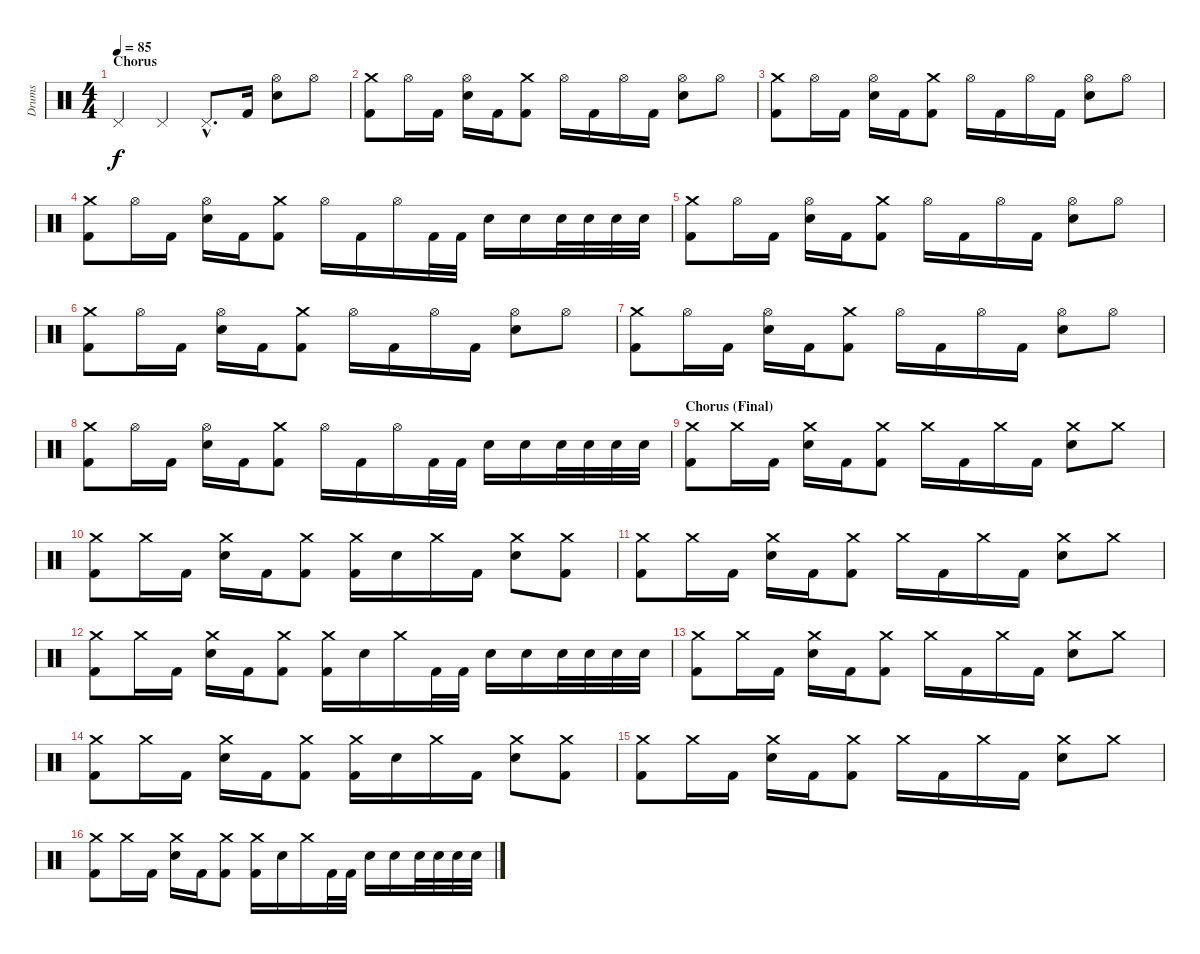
\track ("Drums" "Drums") {instrument percussion}
\staff {score}
\articulation defaults
\ts (4 4)
\section ("" "Chorus")
\tempo 85
\clef neutral
\ks c "Pedal Hi-Hat (hit)".4{dy f} "Pedal Hi-Hat (hit)".4 "Pedal Hi-Hat (hit)"{hac}.8{d} "Kick (hit) 2".16
("Hi-Hat (open)" "Electric Snare (hit)").8 "Hi-Hat (open)".8 |
("Crash medium (hit)" "Kick (hit) 2").8 "Hi-Hat (open)".16 "Kick (hit) 2".16 ("Hi-Hat (open)" "Electric Snare (hit)").16 "Kick (hit) 2".16 ("Crash medium (hit)" "Kick (hit) 2").8 "Hi-Hat (open)".16 "Kick (hit) 2".16 "Hi-Hat (open)".16 "Kick (hit) 2".16 ("Hi-Hat (open)" "Electric Snare (hit)").8 "Hi-Hat (open)".8 |
("Crash medium (hit)" "Kick (hit) 2").8 "Hi-Hat (open)".16 "Kick (hit) 2".16 ("Hi-Hat (open)" "Electric Snare (hit)").16 "Kick (hit) 2".16 ("Crash medium (hit)" "Kick (hit) 2").8 "Hi-Hat (open)".16 "Kick (hit) 2".16 "Hi-Hat (open)".16 "Kick (hit) 2".16 ("Hi-Hat (open)" "Electric Snare (hit)").8 "Hi-Hat (open)".8 |
("Crash medium (hit)" "Kick (hit) 2").8 "Hi-Hat (open)".16 "Kick (hit) 2".16 ("Hi-Hat (open)" "Electric Snare (hit)").16 "Kick (hit) 2".16 ("Crash medium (hit)" "Kick (hit) 2").8 "Hi-Hat (open)".16 "Kick (hit) 2".16 "Hi-Hat (open)".16 "Kick (hit) 2".32 "Kick (hit) 2".32 "Electric Snare (hit)".16 "Electric Snare (hit)".16 "Electric Snare (hit)".32 "Electric Snare (hit)".32 "Electric Snare (hit)".32 "Electric Snare (hit)".32 |
("Crash medium (hit)" "Kick (hit) 2").8 "Hi-Hat (open)".16 "Kick (hit) 2".16 ("Hi-Hat (open)" "Electric Snare (hit)").16 "Kick (hit) 2".16 ("Crash medium (hit)" "Kick (hit) 2").8 "Hi-Hat (open)".16 "Kick (hit) 2".16 "Hi-Hat (open)".16 "Kick (hit) 2".16 ("Hi-Hat (open)" "Electric Snare (hit)").8 "Hi-Hat (open)".8 |
("Crash medium (hit)" "Kick (hit) 2").8 "Hi-Hat (open)".16 "Kick (hit) 2".16 ("Hi-Hat (open)" "Electric Snare (hit)").16 "Kick (hit) 2".16 ("Crash medium (hit)" "Kick (hit) 2").8 "Hi-Hat (open)".16 "Kick (hit) 2".16 "Hi-Hat (open)".16 "Kick (hit) 2".16 ("Hi-Hat (open)" "Electric Snare (hit)").8 "Hi-Hat (open)".8 |
("Crash medium (hit)" "Kick (hit) 2").8 "Hi-Hat (open)".16 "Kick (hit) 2".16 ("Hi-Hat (open)" "Electric Snare (hit)").16 "Kick (hit) 2".16 ("Crash medium (hit)" "Kick (hit) 2").8 "Hi-Hat (open)".16 "Kick (hit) 2".16 "Hi-Hat (open)".16 "Kick (hit) 2".16 ("Hi-Hat (open)" "Electric Snare (hit)").8 "Hi-Hat (open)".8 |
("Crash medium (hit)" "Kick (hit) 2").8 "Hi-Hat (open)".16 "Kick (hit) 2".16 ("Hi-Hat (open)" "Electric Snare (hit)").16 "Kick (hit) 2".16 ("Crash medium (hit)" "Kick (hit) 2").8 "Hi-Hat (open)".16 "Kick (hit) 2".16 "Hi-Hat (open)".16 "Kick (hit) 2".32 "Kick (hit) 2".32 "Electric Snare (hit)".16 "Electric Snare (hit)".16 "Electric Snare (hit)".32 "Electric Snare (hit)".32 "Electric Snare (hit)".32 "Electric Snare (hit)".32 |
\section ("" "Chorus (Final)")
("Crash medium (hit)" "Kick (hit) 2").8 "Crash medium (hit)".16 "Kick (hit) 2".16 ("Crash medium (hit)" "Electric Snare (hit)").16 "Kick (hit) 2".16 ("Crash medium (hit)" "Kick (hit) 2").8 "Crash medium (hit)".16 "Kick (hit) 2".16 "Crash medium (hit)".16 "Kick (hit) 2".16 ("Crash medium (hit)" "Electric Snare (hit)").8 "Crash medium (hit)".8 |
("Crash medium (hit)" "Kick (hit) 2").8 "Crash medium (hit)".16 "Kick (hit) 2".16 ("Crash medium (hit)" "Electric Snare (hit)").16 "Kick (hit) 2".16 ("Crash medium (hit)" "Kick (hit) 2").8 ("Crash medium (hit)" "Kick (hit) 2").16 "Electric Snare (hit)".16 "Crash medium (hit)".16 "Kick (hit) 2".16 ("Crash medium (hit)" "Electric Snare (hit)").8 ("Crash medium (hit)" "Kick (hit) 2").8 |
("Crash medium (hit)" "Kick (hit) 2").8 "Crash medium (hit)".16 "Kick (hit) 2".16 ("Crash medium (hit)" "Electric Snare (hit)").16 "Kick (hit) 2".16 ("Crash medium (hit)" "Kick (hit) 2").8 "Crash medium (hit)".16 "Kick (hit) 2".16 "Crash medium (hit)".16 "Kick (hit) 2".16 ("Crash medium (hit)" "Electric Snare (hit)").8 "Crash medium (hit)".8 |
("Crash medium (hit)" "Kick (hit) 2").8 "Crash medium (hit)".16 "Kick (hit) 2".16 ("Crash medium (hit)" "Electric Snare (hit)").16 "Kick (hit) 2".16 ("Crash medium (hit)" "Kick (hit) 2").8 ("Crash medium (hit)" "Kick (hit) 2").16 "Electric Snare (hit)".16 "Crash medium (hit)".16 "Kick (hit) 2".32 "Kick (hit) 2".32 "Electric Snare (hit)".16 "Electric Snare (hit)".16 "Electric Snare (hit)".32 "Electric Snare (hit)".32 "Electric Snare (hit)".32 "Electric Snare (hit)".32 |
("Crash medium (hit)" "Kick (hit) 2").8 "Crash medium (hit)".16 "Kick (hit) 2".16 ("Crash medium (hit)" "Electric Snare (hit)").16 "Kick (hit) 2".16 ("Crash medium (hit)" "Kick (hit) 2").8 "Crash medium (hit)".16 "Kick (hit) 2".16 "Crash medium (hit)".16 "Kick (hit) 2".16 ("Crash medium (hit)" "Electric Snare (hit)").8 "Crash medium (hit)".8 |
("Crash medium (hit)" "Kick (hit) 2").8 "Crash medium (hit)".16 "Kick (hit) 2".16 ("Crash medium (hit)" "Electric Snare (hit)").16 "Kick (hit) 2".16 ("Crash medium (hit)" "Kick (hit) 2").8 ("Crash medium (hit)" "Kick (hit) 2").16 "Electric Snare (hit)".16 "Crash medium (hit)".16 "Kick (hit) 2".16 ("Crash medium (hit)" "Electric Snare (hit)").8 ("Crash medium (hit)" "Kick (hit) 2").8 |
("Crash medium (hit)" "Kick (hit) 2").8 "Crash medium (hit)".16 "Kick (hit) 2".16 ("Crash medium (hit)" "Electric Snare (hit)").16 "Kick (hit) 2".16 ("Crash medium (hit)" "Kick (hit) 2").8 "Crash medium (hit)".16 "Kick (hit) 2".16 "Crash medium (hit)".16 "Kick (hit) 2".16 ("Crash medium (hit)" "Electric Snare (hit)").8 "Crash medium (hit)".8 |
("Crash medium (hit)" "Kick (hit) 2").8 "Crash medium (hit)".16 "Kick (hit) 2".16 ("Crash medium (hit)" "Electric Snare (hit)").16 "Kick (hit) 2".16 ("Crash medium (hit)" "Kick (hit) 2").8 ("Crash medium (hit)" "Kick (hit) 2").16 "Electric Snare (hit)".16 "Crash medium (hit)".16 "Kick (hit) 2".32 "Kick (hit) 2".32 "Electric Snare (hit)".16 "Electric Snare (hit)".16 "Electric Snare (hit)".32 "Electric Snare (hit)".32 "Electric Snare (hit)".32 "Electric Snare (hit)".32
